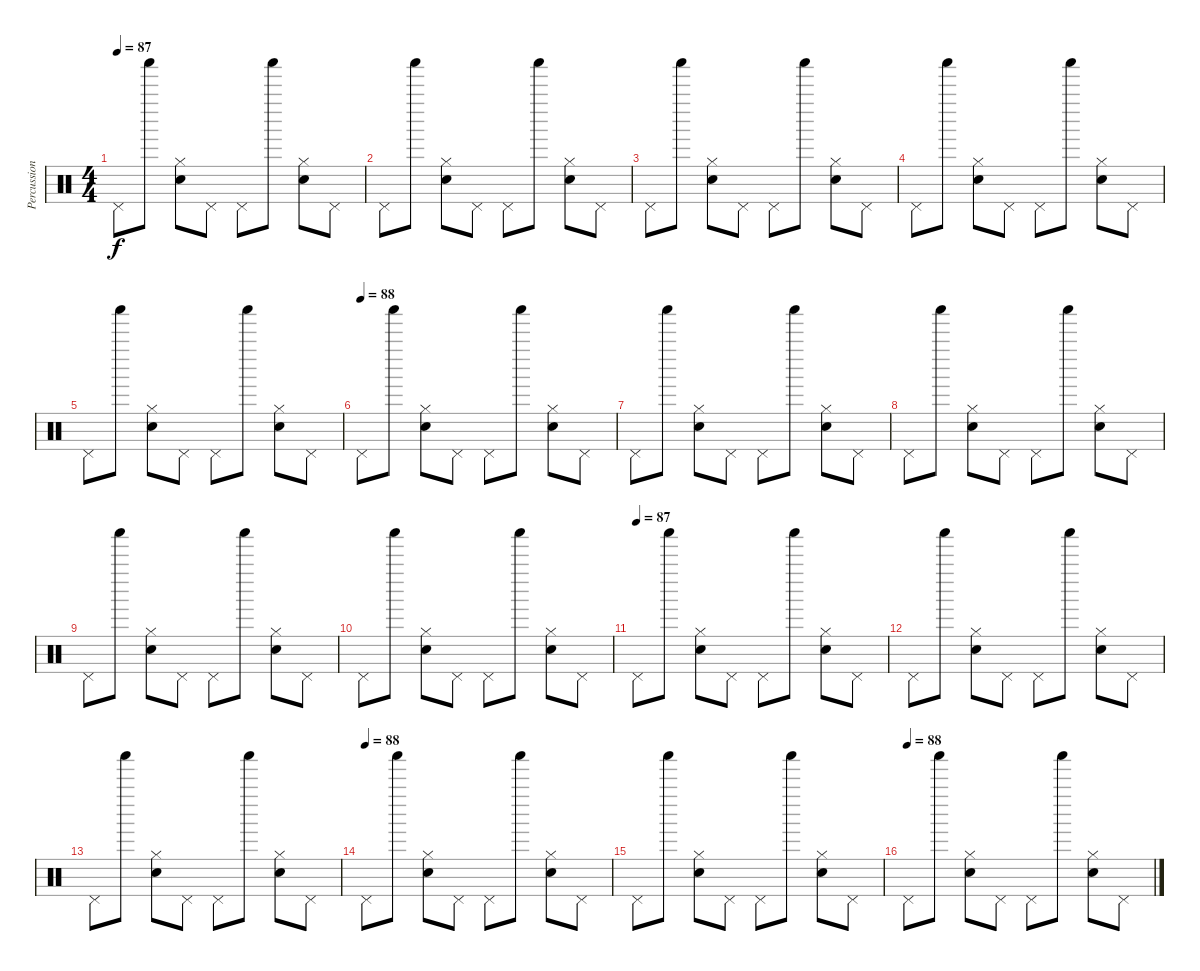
\track ("Percussion" "Percussion") {instrument percussion}
\staff {score}
\articulation defaults
\ts (4 4)
\tempo 87
\clef neutral
\ks c "Pedal Hi-Hat (hit)".8{dy f} "Shaker (hit)".8
("Hi-Hat (closed)" "Electric Snare (hit)").8 "Pedal Hi-Hat (hit)".8 "Pedal Hi-Hat (hit)".8 "Shaker (hit)".8 ("Hi-Hat (closed)" "Electric Snare (hit)").8 "Pedal Hi-Hat (hit)".8 |
"Pedal Hi-Hat (hit)".8 "Shaker (hit)".8 ("Hi-Hat (closed)" "Electric Snare (hit)").8 "Pedal Hi-Hat (hit)".8 "Pedal Hi-Hat (hit)".8 "Shaker (hit)".8 ("Hi-Hat (closed)" "Electric Snare (hit)").8 "Pedal Hi-Hat (hit)".8 |
"Pedal Hi-Hat (hit)".8 "Shaker (hit)".8 ("Hi-Hat (closed)" "Electric Snare (hit)").8 "Pedal Hi-Hat (hit)".8 "Pedal Hi-Hat (hit)".8 "Shaker (hit)".8 ("Hi-Hat (closed)" "Electric Snare (hit)").8 "Pedal Hi-Hat (hit)".8 |
"Pedal Hi-Hat (hit)".8 "Shaker (hit)".8 ("Hi-Hat (closed)" "Electric Snare (hit)").8 "Pedal Hi-Hat (hit)".8 "Pedal Hi-Hat (hit)".8 "Shaker (hit)".8 ("Hi-Hat (closed)" "Electric Snare (hit)").8 "Pedal Hi-Hat (hit)".8 |
"Pedal Hi-Hat (hit)".8 "Shaker (hit)".8 ("Hi-Hat (closed)" "Electric Snare (hit)").8 "Pedal Hi-Hat (hit)".8 "Pedal Hi-Hat (hit)".8 "Shaker (hit)".8 ("Hi-Hat (closed)" "Electric Snare (hit)").8 "Pedal Hi-Hat (hit)".8 |
\tempo (88)
"Pedal Hi-Hat (hit)".8 "Shaker (hit)".8 ("Hi-Hat (closed)" "Electric Snare (hit)").8 "Pedal Hi-Hat (hit)".8 "Pedal Hi-Hat (hit)".8 "Shaker (hit)".8 ("Hi-Hat (closed)" "Electric Snare (hit)").8 "Pedal Hi-Hat (hit)".8 |
"Pedal Hi-Hat (hit)".8 "Shaker (hit)".8 ("Hi-Hat (closed)" "Electric Snare (hit)").8 "Pedal Hi-Hat (hit)".8 "Pedal Hi-Hat (hit)".8 "Shaker (hit)".8 ("Hi-Hat (closed)" "Electric Snare (hit)").8 "Pedal Hi-Hat (hit)".8 |
"Pedal Hi-Hat (hit)".8 "Shaker (hit)".8 ("Hi-Hat (closed)" "Electric Snare (hit)").8 "Pedal Hi-Hat (hit)".8 "Pedal Hi-Hat (hit)".8 "Shaker (hit)".8 ("Hi-Hat (closed)" "Electric Snare (hit)").8 "Pedal Hi-Hat (hit)".8 |
"Pedal Hi-Hat (hit)".8 "Shaker (hit)".8 ("Hi-Hat (closed)" "Electric Snare (hit)").8 "Pedal Hi-Hat (hit)".8 "Pedal Hi-Hat (hit)".8 "Shaker (hit)".8 ("Hi-Hat (closed)" "Electric Snare (hit)").8 "Pedal Hi-Hat (hit)".8 |
"Pedal Hi-Hat (hit)".8 "Shaker (hit)".8 ("Hi-Hat (closed)" "Electric Snare (hit)").8 "Pedal Hi-Hat (hit)".8 "Pedal Hi-Hat (hit)".8 "Shaker (hit)".8 ("Hi-Hat (closed)" "Electric Snare (hit)").8 "Pedal Hi-Hat (hit)".8 |
\tempo (87)
"Pedal Hi-Hat (hit)".8 "Shaker (hit)".8 ("Hi-Hat (closed)" "Electric Snare (hit)").8 "Pedal Hi-Hat (hit)".8 "Pedal Hi-Hat (hit)".8 "Shaker (hit)".8 ("Hi-Hat (closed)" "Electric Snare (hit)").8 "Pedal Hi-Hat (hit)".8 |
"Pedal Hi-Hat (hit)".8 "Shaker (hit)".8 ("Hi-Hat (closed)" "Electric Snare (hit)").8 "Pedal Hi-Hat (hit)".8 "Pedal Hi-Hat (hit)".8 "Shaker (hit)".8 ("Hi-Hat (closed)" "Electric Snare (hit)").8 "Pedal Hi-Hat (hit)".8 |
"Pedal Hi-Hat (hit)".8 "Shaker (hit)".8 ("Hi-Hat (closed)" "Electric Snare (hit)").8 "Pedal Hi-Hat (hit)".8 "Pedal Hi-Hat (hit)".8 "Shaker (hit)".8 ("Hi-Hat (closed)" "Electric Snare (hit)").8 "Pedal Hi-Hat (hit)".8 |
\tempo (88)
"Pedal Hi-Hat (hit)".8 "Shaker (hit)".8 ("Hi-Hat (closed)" "Electric Snare (hit)").8 "Pedal Hi-Hat (hit)".8 "Pedal Hi-Hat (hit)".8 "Shaker (hit)".8 ("Hi-Hat (closed)" "Electric Snare (hit)").8 "Pedal Hi-Hat (hit)".8 |
"Pedal Hi-Hat (hit)".8 "Shaker (hit)".8 ("Hi-Hat (closed)" "Electric Snare (hit)").8 "Pedal Hi-Hat (hit)".8 "Pedal Hi-Hat (hit)".8 "Shaker (hit)".8 ("Hi-Hat (closed)" "Electric Snare (hit)").8 "Pedal Hi-Hat (hit)".8 |
\tempo (88)
"Pedal Hi-Hat (hit)".8 "Shaker (hit)".8 ("Hi-Hat (closed)" "Electric Snare (hit)").8 "Pedal Hi-Hat (hit)".8 "Pedal Hi-Hat (hit)".8 "Shaker (hit)".8 ("Hi-Hat (closed)" "Electric Snare (hit)").8 "Pedal Hi-Hat (hit)".8
